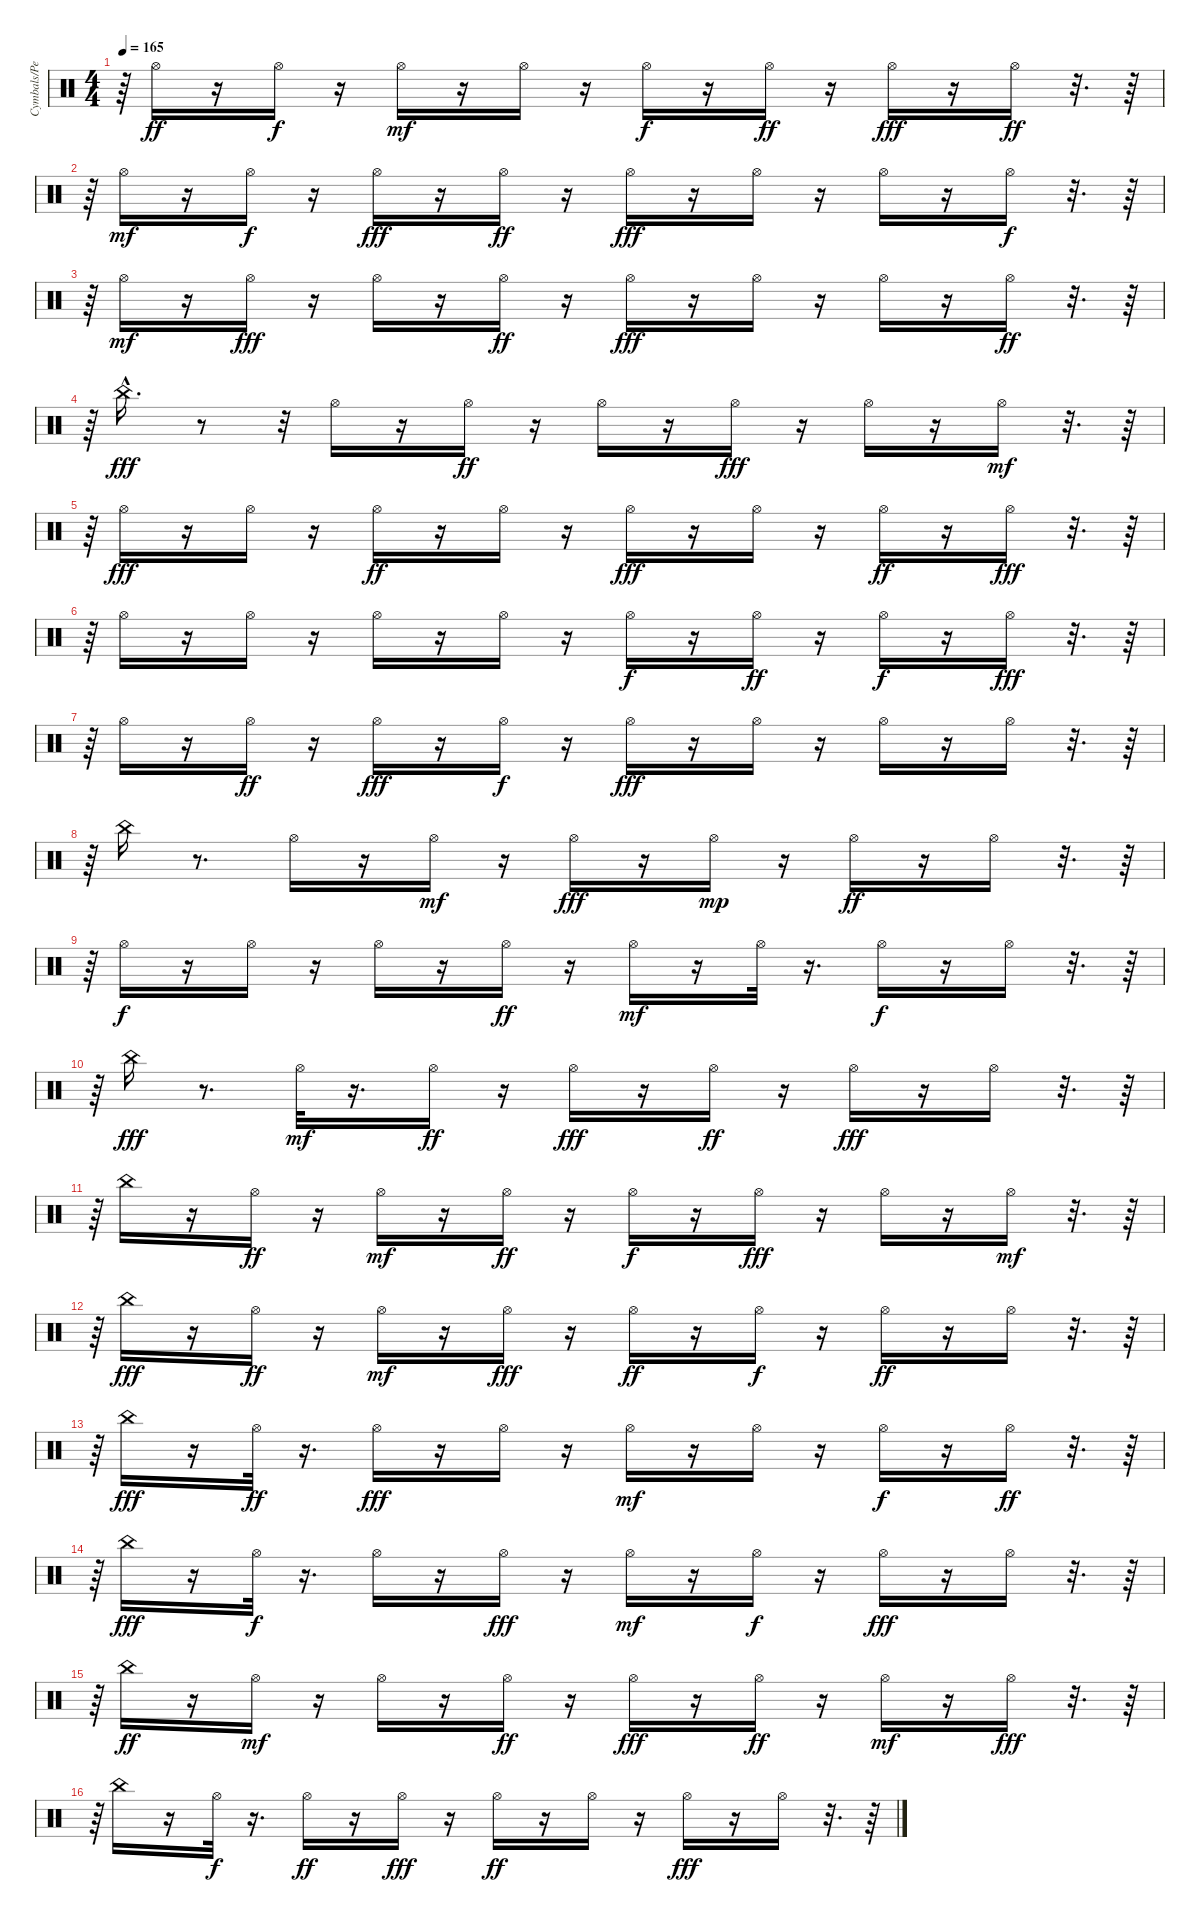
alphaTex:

\track ("Cymbals/Percussion" "Cymbals/Pe") {instrument percussion}
\staff {score}
\articulation defaults
\ts (4 4)
\tempo 165
\clef neutral
\ks c
r.64{dy mf} "Hi-Hat (open)".16{dy ff} r.16 "Hi-Hat (open)".16{dy f} r.16 "Hi-Hat (open)".16{dy mf} r.16 "Hi-Hat (open)".16 r.16 "Hi-Hat (open)".16{dy f} r.16 "Hi-Hat (open)".16{dy ff} r.16 "Hi-Hat (open)".16{dy fff} r.16 "Hi-Hat (open)".16{dy ff} r.32{d} r.64 |
r.64 "Hi-Hat (open)".16{dy mf} r.16 "Hi-Hat (open)".16{dy f} r.16 "Hi-Hat (open)".16{dy fff} r.16 "Hi-Hat (open)".16{dy ff} r.16 "Hi-Hat (open)".16{dy fff} r.16 "Hi-Hat (open)".16 r.16 "Hi-Hat (open)".16 r.16 "Hi-Hat (open)".16{dy f} r.32{d} r.64 |
r.64 "Hi-Hat (open)".16{dy mf} r.16 "Hi-Hat (open)".16{dy fff} r.16 "Hi-Hat (open)".16 r.16 "Hi-Hat (open)".16{dy ff} r.16 "Hi-Hat (open)".16{dy fff} r.16 "Hi-Hat (open)".16 r.16 "Hi-Hat (open)".16 r.16 "Hi-Hat (open)".16{dy ff} r.32{d} r.64 |
r.64 "China (hit)"{hac}.16{d dy fff} r.8 r.32 "Hi-Hat (open)".16 r.16 "Hi-Hat (open)".16{dy ff} r.16 "Hi-Hat (open)".16 r.16 "Hi-Hat (open)".16{dy fff} r.16 "Hi-Hat (open)".16 r.16 "Hi-Hat (open)".16{dy mf} r.32{d} r.64 |
r.64 "Hi-Hat (open)".16{dy fff} r.16 "Hi-Hat (open)".16 r.16 "Hi-Hat (open)".16{dy ff} r.16 "Hi-Hat (open)".16 r.16 "Hi-Hat (open)".16{dy fff} r.16 "Hi-Hat (open)".16 r.16 "Hi-Hat (open)".16{dy ff} r.16 "Hi-Hat (open)".16{dy fff} r.32{d} r.64 |
r.64 "Hi-Hat (open)".16 r.16 "Hi-Hat (open)".16 r.16 "Hi-Hat (open)".16 r.16 "Hi-Hat (open)".16 r.16 "Hi-Hat (open)".16{dy f} r.16 "Hi-Hat (open)".16{dy ff} r.16 "Hi-Hat (open)".16{dy f} r.16 "Hi-Hat (open)".16{dy fff} r.32{d} r.64 |
r.64 "Hi-Hat (open)".16 r.16 "Hi-Hat (open)".16{dy ff} r.16 "Hi-Hat (open)".16{dy fff} r.16 "Hi-Hat (open)".16{dy f} r.16 "Hi-Hat (open)".16{dy fff} r.16 "Hi-Hat (open)".16 r.16 "Hi-Hat (open)".16 r.16 "Hi-Hat (open)".16 r.32{d} r.64 |
r.64 "China (hit)".16 r.8{d} "Hi-Hat (open)".16 r.16 "Hi-Hat (open)".16{dy mf} r.16 "Hi-Hat (open)".16{dy fff} r.16 "Hi-Hat (open)".16{dy mp} r.16 "Hi-Hat (open)".16{dy ff} r.16 "Hi-Hat (open)".16 r.32{d} r.64 |
r.64 "Hi-Hat (open)".16{dy f} r.16 "Hi-Hat (open)".16 r.16 "Hi-Hat (open)".16 r.16 "Hi-Hat (open)".16{dy ff} r.16 "Hi-Hat (open)".16{dy mf} r.16 "Hi-Hat (open)".32 r.16{d} "Hi-Hat (open)".16{dy f} r.16 "Hi-Hat (open)".16 r.32{d} r.64 |
r.64 "China (hit)".16{dy fff} r.8{d} "Hi-Hat (open)".32{dy mf} r.16{d} "Hi-Hat (open)".16{dy ff} r.16 "Hi-Hat (open)".16{dy fff} r.16 "Hi-Hat (open)".16{dy ff} r.16 "Hi-Hat (open)".16{dy fff} r.16 "Hi-Hat (open)".16 r.32{d} r.64 |
r.64 "China (hit)".16 r.16 "Hi-Hat (open)".16{dy ff} r.16 "Hi-Hat (open)".16{dy mf} r.16 "Hi-Hat (open)".16{dy ff} r.16 "Hi-Hat (open)".16{dy f} r.16 "Hi-Hat (open)".16{dy fff} r.16 "Hi-Hat (open)".16 r.16 "Hi-Hat (open)".16{dy mf} r.32{d} r.64 |
r.64 "China (hit)".16{dy fff} r.16 "Hi-Hat (open)".16{dy ff} r.16 "Hi-Hat (open)".16{dy mf} r.16 "Hi-Hat (open)".16{dy fff} r.16 "Hi-Hat (open)".16{dy ff} r.16 "Hi-Hat (open)".16{dy f} r.16 "Hi-Hat (open)".16{dy ff} r.16 "Hi-Hat (open)".16 r.32{d} r.64 |
r.64 "China (hit)".16{dy fff} r.16 "Hi-Hat (open)".32{dy ff} r.16{d} "Hi-Hat (open)".16{dy fff} r.16 "Hi-Hat (open)".16 r.16 "Hi-Hat (open)".16{dy mf} r.16 "Hi-Hat (open)".16 r.16 "Hi-Hat (open)".16{dy f} r.16 "Hi-Hat (open)".16{dy ff} r.32{d} r.64 |
r.64 "China (hit)".16{dy fff} r.16 "Hi-Hat (open)".32{dy f} r.16{d} "Hi-Hat (open)".16 r.16 "Hi-Hat (open)".16{dy fff} r.16 "Hi-Hat (open)".16{dy mf} r.16 "Hi-Hat (open)".16{dy f} r.16 "Hi-Hat (open)".16{dy fff} r.16 "Hi-Hat (open)".16 r.32{d} r.64 |
r.64 "China (hit)".16{dy ff} r.16 "Hi-Hat (open)".16{dy mf} r.16 "Hi-Hat (open)".16 r.16 "Hi-Hat (open)".16{dy ff} r.16 "Hi-Hat (open)".16{dy fff} r.16 "Hi-Hat (open)".16{dy ff} r.16 "Hi-Hat (open)".16{dy mf} r.16 "Hi-Hat (open)".16{dy fff} r.32{d} r.64 |
r.64 "China (hit)".16 r.16 "Hi-Hat (open)".32{dy f} r.16{d} "Hi-Hat (open)".16{dy ff} r.16 "Hi-Hat (open)".16{dy fff} r.16 "Hi-Hat (open)".16{dy ff} r.16 "Hi-Hat (open)".16 r.16 "Hi-Hat (open)".16{dy fff} r.16 "Hi-Hat (open)".16 r.32{d} r.64
